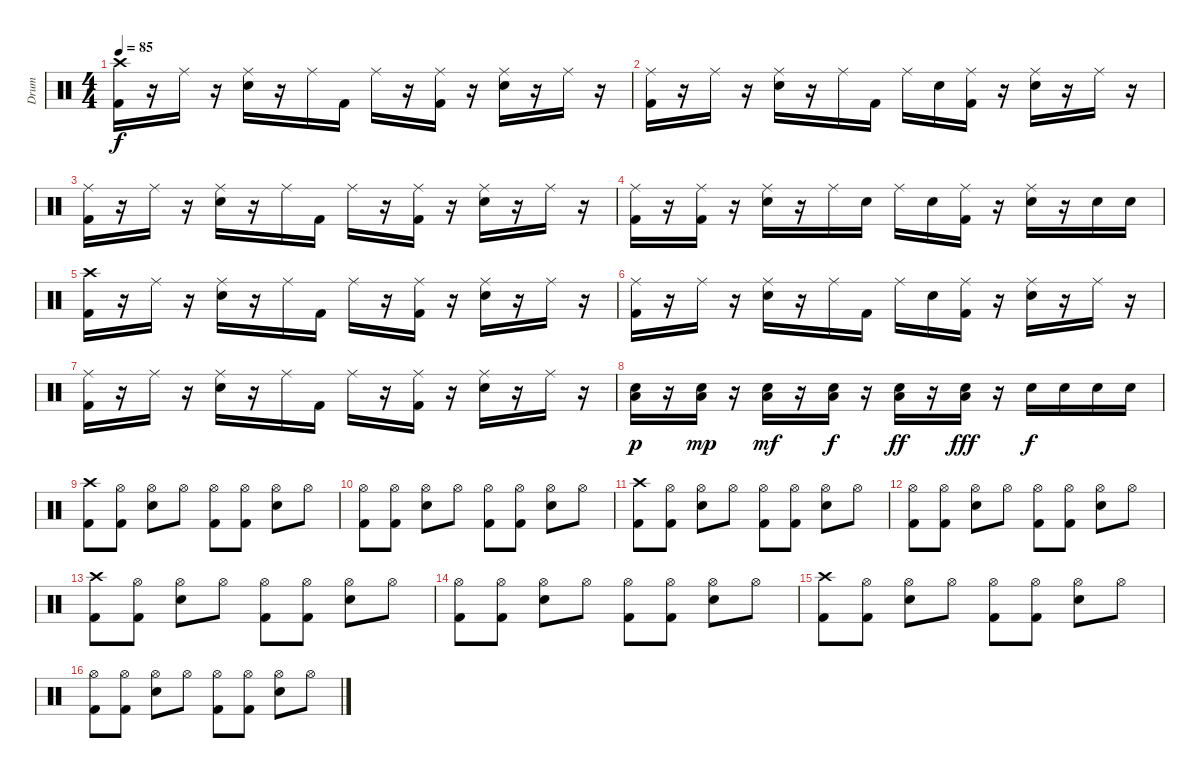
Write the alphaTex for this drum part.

\track ("Drum" "Drum") {instrument percussion}
\staff {score}
\articulation defaults
\ts (4 4)
\tempo 85
\clef neutral
\ks c
("Crash high (hit)" "Kick (hit) 2").16{dy f} r.16 "Ride (middle)".16 r.16 ("Ride (middle)" "Electric Snare (hit)").16 r.16 "Ride (middle)".16 "Kick (hit) 2".16 "Ride (middle)".16 r.16 ("Ride (middle)" "Kick (hit) 2").16 r.16 ("Ride (middle)" "Electric Snare (hit)").16 r.16 "Ride (middle)".16 r.16 |
("Ride (middle)" "Kick (hit) 2").16 r.16 "Ride (middle)".16 r.16 ("Ride (middle)" "Electric Snare (hit)").16 r.16 "Ride (middle)".16 "Kick (hit) 2".16 "Ride (middle)".16 "Electric Snare (hit)".16 ("Ride (middle)" "Kick (hit) 2").16 r.16 ("Ride (middle)" "Electric Snare (hit)").16 r.16 "Ride (middle)".16 r.16 |
("Ride (middle)" "Kick (hit) 2").16 r.16 "Ride (middle)".16 r.16 ("Ride (middle)" "Electric Snare (hit)").16 r.16 "Ride (middle)".16 "Kick (hit) 2".16 "Ride (middle)".16 r.16 ("Ride (middle)" "Kick (hit) 2").16 r.16 ("Ride (middle)" "Electric Snare (hit)").16 r.16 "Ride (middle)".16 r.16 |
("Ride (middle)" "Kick (hit) 2").16 r.16 ("Ride (middle)" "Kick (hit) 2").16 r.16 ("Ride (middle)" "Electric Snare (hit)").16 r.16 "Ride (middle)".16 "Electric Snare (hit)".16 "Ride (middle)".16 "Electric Snare (hit)".16 ("Ride (middle)" "Kick (hit) 2").16 r.16 ("Ride (middle)" "Electric Snare (hit)").16 r.16 "Electric Snare (hit)".16 "Electric Snare (hit)".16 |
("Crash high (hit)" "Kick (hit) 2").16 r.16 "Ride (middle)".16 r.16 ("Ride (middle)" "Electric Snare (hit)").16 r.16 "Ride (middle)".16 "Kick (hit) 2".16 "Ride (middle)".16 r.16 ("Ride (middle)" "Kick (hit) 2").16 r.16 ("Ride (middle)" "Electric Snare (hit)").16 r.16 "Ride (middle)".16 r.16 |
("Ride (middle)" "Kick (hit) 2").16 r.16 "Ride (middle)".16 r.16 ("Ride (middle)" "Electric Snare (hit)").16 r.16 "Ride (middle)".16 "Kick (hit) 2".16 "Ride (middle)".16 "Electric Snare (hit)".16 ("Ride (middle)" "Kick (hit) 2").16 r.16 ("Ride (middle)" "Electric Snare (hit)").16 r.16 "Ride (middle)".16 r.16 |
("Ride (middle)" "Kick (hit) 2").16 r.16 "Ride (middle)".16 r.16 ("Ride (middle)" "Electric Snare (hit)").16 r.16 "Ride (middle)".16 "Kick (hit) 2".16 "Ride (middle)".16 r.16 ("Ride (middle)" "Kick (hit) 2").16 r.16 ("Ride (middle)" "Electric Snare (hit)").16 r.16 "Ride (middle)".16 r.16 |
("Low Floor Tom (hit)" "Electric Snare (hit)").16{dy p} r.16 ("Low Floor Tom (hit)" "Electric Snare (hit)").16{dy mp} r.16 ("Low Floor Tom (hit)" "Electric Snare (hit)").16{dy mf} r.16 ("Low Floor Tom (hit)" "Electric Snare (hit)").16{dy f} r.16 ("Low Floor Tom (hit)" "Electric Snare (hit)").16{dy ff} r.16 ("Low Floor Tom (hit)" "Electric Snare (hit)").16{dy fff} r.16 "Electric Snare (hit)".16{dy f} "Electric Snare (hit)".16 "Electric Snare (hit)".16 "Electric Snare (hit)".16 |
("Crash high (hit)" "Kick (hit) 2").8 ("Hi-Hat (open)" "Kick (hit) 2").8 ("Hi-Hat (open)" "Electric Snare (hit)").8 "Hi-Hat (open)".8 ("Hi-Hat (open)" "Kick (hit) 2").8 ("Hi-Hat (open)" "Kick (hit) 2").8 ("Hi-Hat (open)" "Electric Snare (hit)").8 "Hi-Hat (open)".8 |
("Hi-Hat (open)" "Kick (hit) 2").8 ("Hi-Hat (open)" "Kick (hit) 2").8 ("Hi-Hat (open)" "Electric Snare (hit)").8 "Hi-Hat (open)".8 ("Hi-Hat (open)" "Kick (hit) 2").8 ("Hi-Hat (open)" "Kick (hit) 2").8 ("Hi-Hat (open)" "Electric Snare (hit)").8 "Hi-Hat (open)".8 |
("Crash high (hit)" "Kick (hit) 2").8 ("Hi-Hat (open)" "Kick (hit) 2").8 ("Hi-Hat (open)" "Electric Snare (hit)").8 "Hi-Hat (open)".8 ("Hi-Hat (open)" "Kick (hit) 2").8 ("Hi-Hat (open)" "Kick (hit) 2").8 ("Hi-Hat (open)" "Electric Snare (hit)").8 "Hi-Hat (open)".8 |
("Hi-Hat (open)" "Kick (hit) 2").8 ("Hi-Hat (open)" "Kick (hit) 2").8 ("Hi-Hat (open)" "Electric Snare (hit)").8 "Hi-Hat (open)".8 ("Hi-Hat (open)" "Kick (hit) 2").8 ("Hi-Hat (open)" "Kick (hit) 2").8 ("Hi-Hat (open)" "Electric Snare (hit)").8 "Hi-Hat (open)".8 |
("Crash high (hit)" "Kick (hit) 2").8 ("Hi-Hat (open)" "Kick (hit) 2").8 ("Hi-Hat (open)" "Electric Snare (hit)").8 "Hi-Hat (open)".8 ("Hi-Hat (open)" "Kick (hit) 2").8 ("Hi-Hat (open)" "Kick (hit) 2").8 ("Hi-Hat (open)" "Electric Snare (hit)").8 "Hi-Hat (open)".8 |
("Hi-Hat (open)" "Kick (hit) 2").8 ("Hi-Hat (open)" "Kick (hit) 2").8 ("Hi-Hat (open)" "Electric Snare (hit)").8 "Hi-Hat (open)".8 ("Hi-Hat (open)" "Kick (hit) 2").8 ("Hi-Hat (open)" "Kick (hit) 2").8 ("Hi-Hat (open)" "Electric Snare (hit)").8 "Hi-Hat (open)".8 |
("Crash high (hit)" "Kick (hit) 2").8 ("Hi-Hat (open)" "Kick (hit) 2").8 ("Hi-Hat (open)" "Electric Snare (hit)").8 "Hi-Hat (open)".8 ("Hi-Hat (open)" "Kick (hit) 2").8 ("Hi-Hat (open)" "Kick (hit) 2").8 ("Hi-Hat (open)" "Electric Snare (hit)").8 "Hi-Hat (open)".8 |
("Hi-Hat (open)" "Kick (hit) 2").8 ("Hi-Hat (open)" "Kick (hit) 2").8 ("Hi-Hat (open)" "Electric Snare (hit)").8 "Hi-Hat (open)".8 ("Hi-Hat (open)" "Kick (hit) 2").8 ("Hi-Hat (open)" "Kick (hit) 2").8 ("Hi-Hat (open)" "Electric Snare (hit)").8 "Hi-Hat (open)".8
